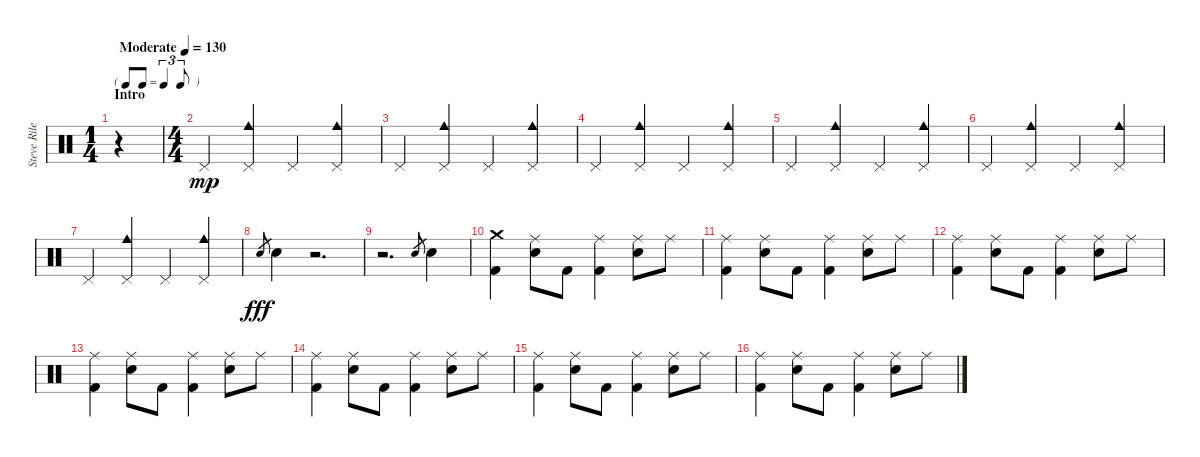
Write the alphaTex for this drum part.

\track ("Steve Riley - Drums" "Steve Rile") {instrument percussion}
\staff {score}
\articulation defaults
\ts (1 4)
\tf triplet8th
\section ("" "Intro")
\tempo (130 "Moderate")
\clef neutral
\ks c
r.4{dy mp} |
\ts (4 4)
"Pedal Hi-Hat (hit)".4 ("Cowbell medium (hit)" "Pedal Hi-Hat (hit)").4 "Pedal Hi-Hat (hit)".4 ("Cowbell medium (hit)" "Pedal Hi-Hat (hit)").4 |
"Pedal Hi-Hat (hit)".4 ("Cowbell medium (hit)" "Pedal Hi-Hat (hit)").4 "Pedal Hi-Hat (hit)".4 ("Cowbell medium (hit)" "Pedal Hi-Hat (hit)").4 |
"Pedal Hi-Hat (hit)".4 ("Cowbell medium (hit)" "Pedal Hi-Hat (hit)").4 "Pedal Hi-Hat (hit)".4 ("Cowbell medium (hit)" "Pedal Hi-Hat (hit)").4 |
"Pedal Hi-Hat (hit)".4 ("Cowbell medium (hit)" "Pedal Hi-Hat (hit)").4 "Pedal Hi-Hat (hit)".4 ("Cowbell medium (hit)" "Pedal Hi-Hat (hit)").4 |
"Pedal Hi-Hat (hit)".4 ("Cowbell medium (hit)" "Pedal Hi-Hat (hit)").4 "Pedal Hi-Hat (hit)".4 ("Cowbell medium (hit)" "Pedal Hi-Hat (hit)").4 |
"Pedal Hi-Hat (hit)".4 ("Cowbell medium (hit)" "Pedal Hi-Hat (hit)").4 "Pedal Hi-Hat (hit)".4 ("Cowbell medium (hit)" "Pedal Hi-Hat (hit)").4 |
"Electric Snare (hit)".8{gr dy fff} "Electric Snare (hit)".4 r.2{d} |
r.2{d} "Electric Snare (hit)".8{gr} "Electric Snare (hit)".4 |
("Crash medium (hit)" "Kick (hit) 2").4 ("Ride (middle)" "Electric Snare (hit)").8 "Kick (hit) 2".8 ("Ride (middle)" "Kick (hit) 2").4 ("Ride (middle)" "Electric Snare (hit)").8 "Ride (middle)".8 |
("Ride (middle)" "Kick (hit) 2").4 ("Ride (middle)" "Electric Snare (hit)").8 "Kick (hit) 2".8 ("Ride (middle)" "Kick (hit) 2").4 ("Ride (middle)" "Electric Snare (hit)").8 "Ride (middle)".8 |
("Ride (middle)" "Kick (hit) 2").4 ("Ride (middle)" "Electric Snare (hit)").8 "Kick (hit) 2".8 ("Ride (middle)" "Kick (hit) 2").4 ("Ride (middle)" "Electric Snare (hit)").8 "Ride (middle)".8 |
("Ride (middle)" "Kick (hit) 2").4 ("Ride (middle)" "Electric Snare (hit)").8 "Kick (hit) 2".8 ("Ride (middle)" "Kick (hit) 2").4 ("Ride (middle)" "Electric Snare (hit)").8 "Ride (middle)".8 |
("Ride (middle)" "Kick (hit) 2").4 ("Ride (middle)" "Electric Snare (hit)").8 "Kick (hit) 2".8 ("Ride (middle)" "Kick (hit) 2").4 ("Ride (middle)" "Electric Snare (hit)").8 "Ride (middle)".8 |
("Ride (middle)" "Kick (hit) 2").4 ("Ride (middle)" "Electric Snare (hit)").8 "Kick (hit) 2".8 ("Ride (middle)" "Kick (hit) 2").4 ("Ride (middle)" "Electric Snare (hit)").8 "Ride (middle)".8 |
("Ride (middle)" "Kick (hit) 2").4 ("Ride (middle)" "Electric Snare (hit)").8 "Kick (hit) 2".8 ("Ride (middle)" "Kick (hit) 2").4 ("Ride (middle)" "Electric Snare (hit)").8 "Ride (middle)".8
